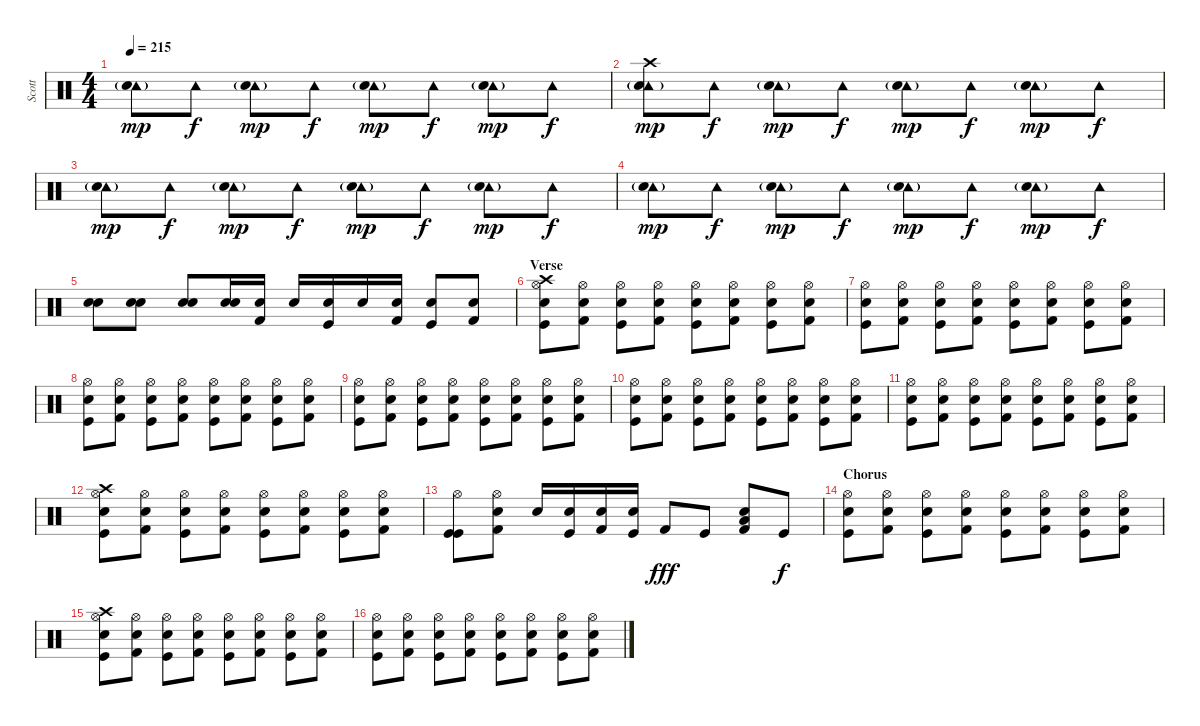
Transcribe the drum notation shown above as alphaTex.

\track ("Scott" "Scott") {instrument percussion}
\staff {score}
\articulation defaults
\ts (4 4)
\tempo 215
\clef neutral
\ks c
("Tambourine (hit)" "Electric Snare (hit)"{g}).8{dy mp} "Tambourine (hit)".8{dy f} ("Tambourine (hit)" "Electric Snare (hit)"{g}).8{dy mp} "Tambourine (hit)".8{dy f} ("Tambourine (hit)" "Electric Snare (hit)"{g}).8{dy mp} "Tambourine (hit)".8{dy f} ("Tambourine (hit)" "Electric Snare (hit)"{g}).8{dy mp} "Tambourine (hit)".8{dy f} |
("Crash high (hit)" "Tambourine (hit)" "Electric Snare (hit)"{g}).8{dy mp} "Tambourine (hit)".8{dy f} ("Tambourine (hit)" "Electric Snare (hit)"{g}).8{dy mp} "Tambourine (hit)".8{dy f} ("Tambourine (hit)" "Electric Snare (hit)"{g}).8{dy mp} "Tambourine (hit)".8{dy f} ("Tambourine (hit)" "Electric Snare (hit)"{g}).8{dy mp} "Tambourine (hit)".8{dy f} |
("Tambourine (hit)" "Electric Snare (hit)"{g}).8{dy mp} "Tambourine (hit)".8{dy f} ("Tambourine (hit)" "Electric Snare (hit)"{g}).8{dy mp} "Tambourine (hit)".8{dy f} ("Tambourine (hit)" "Electric Snare (hit)"{g}).8{dy mp} "Tambourine (hit)".8{dy f} ("Tambourine (hit)" "Electric Snare (hit)"{g}).8{dy mp} "Tambourine (hit)".8{dy f} |
("Tambourine (hit)" "Electric Snare (hit)"{g}).8{dy mp} "Tambourine (hit)".8{dy f} ("Tambourine (hit)" "Electric Snare (hit)"{g}).8{dy mp} "Tambourine (hit)".8{dy f} ("Tambourine (hit)" "Electric Snare (hit)"{g}).8{dy mp} "Tambourine (hit)".8{dy f} ("Tambourine (hit)" "Electric Snare (hit)"{g}).8{dy mp} "Tambourine (hit)".8{dy f} |
("Snare (hit) 2" "Electric Snare (hit)").8 ("Snare (hit) 2" "Electric Snare (hit)").8 ("Snare (hit) 2" "Electric Snare (hit)").8 ("Snare (hit) 2" "Electric Snare (hit)").16 ("Kick (hit) 2" "Electric Snare (hit)").16 "Snare (hit) 2".16 ("Kick (hit)" "Electric Snare (hit)").16 "Snare (hit) 2".16 ("Kick (hit) 2" "Electric Snare (hit)").16 ("Snare (hit) 2" "Kick (hit)").8 ("Snare (hit) 2" "Kick (hit) 2").8 |
\section ("" "Verse")
("Crash high (hit)" "Hi-Hat (open)" "Snare (hit) 2" "Kick (hit)").8 ("Hi-Hat (open)" "Electric Snare (hit)" "Kick (hit) 2").8 ("Hi-Hat (open)" "Snare (hit) 2" "Kick (hit)").8 ("Hi-Hat (open)" "Electric Snare (hit)" "Kick (hit) 2").8 ("Hi-Hat (open)" "Snare (hit) 2" "Kick (hit)").8 ("Hi-Hat (open)" "Electric Snare (hit)" "Kick (hit) 2").8 ("Hi-Hat (open)" "Snare (hit) 2" "Kick (hit)").8 ("Hi-Hat (open)" "Electric Snare (hit)" "Kick (hit) 2").8 |
("Hi-Hat (open)" "Snare (hit) 2" "Kick (hit)").8 ("Hi-Hat (open)" "Electric Snare (hit)" "Kick (hit) 2").8 ("Hi-Hat (open)" "Snare (hit) 2" "Kick (hit)").8 ("Hi-Hat (open)" "Electric Snare (hit)" "Kick (hit) 2").8 ("Hi-Hat (open)" "Snare (hit) 2" "Kick (hit)").8 ("Hi-Hat (open)" "Electric Snare (hit)" "Kick (hit) 2").8 ("Hi-Hat (open)" "Snare (hit) 2" "Kick (hit)").8 ("Hi-Hat (open)" "Electric Snare (hit)" "Kick (hit) 2").8 |
("Hi-Hat (open)" "Snare (hit) 2" "Kick (hit)").8 ("Hi-Hat (open)" "Electric Snare (hit)" "Kick (hit) 2").8 ("Hi-Hat (open)" "Snare (hit) 2" "Kick (hit)").8 ("Hi-Hat (open)" "Electric Snare (hit)" "Kick (hit) 2").8 ("Hi-Hat (open)" "Snare (hit) 2" "Kick (hit)").8 ("Hi-Hat (open)" "Electric Snare (hit)" "Kick (hit) 2").8 ("Hi-Hat (open)" "Snare (hit) 2" "Kick (hit)").8 ("Hi-Hat (open)" "Electric Snare (hit)" "Kick (hit) 2").8 |
("Hi-Hat (open)" "Snare (hit) 2" "Kick (hit)").8 ("Hi-Hat (open)" "Electric Snare (hit)" "Kick (hit) 2").8 ("Hi-Hat (open)" "Snare (hit) 2" "Kick (hit)").8 ("Hi-Hat (open)" "Electric Snare (hit)" "Kick (hit) 2").8 ("Hi-Hat (open)" "Snare (hit) 2" "Kick (hit)").8 ("Hi-Hat (open)" "Electric Snare (hit)" "Kick (hit) 2").8 ("Hi-Hat (open)" "Snare (hit) 2" "Kick (hit)").8 ("Hi-Hat (open)" "Electric Snare (hit)" "Kick (hit) 2").8 |
("Hi-Hat (open)" "Snare (hit) 2" "Kick (hit)").8 ("Hi-Hat (open)" "Electric Snare (hit)" "Kick (hit) 2").8 ("Hi-Hat (open)" "Snare (hit) 2" "Kick (hit)").8 ("Hi-Hat (open)" "Electric Snare (hit)" "Kick (hit) 2").8 ("Hi-Hat (open)" "Snare (hit) 2" "Kick (hit)").8 ("Hi-Hat (open)" "Electric Snare (hit)" "Kick (hit) 2").8 ("Hi-Hat (open)" "Snare (hit) 2" "Kick (hit)").8 ("Hi-Hat (open)" "Electric Snare (hit)" "Kick (hit) 2").8 |
("Hi-Hat (open)" "Snare (hit) 2" "Kick (hit)").8 ("Hi-Hat (open)" "Electric Snare (hit)" "Kick (hit) 2").8 ("Hi-Hat (open)" "Snare (hit) 2" "Kick (hit)").8 ("Hi-Hat (open)" "Electric Snare (hit)" "Kick (hit) 2").8 ("Hi-Hat (open)" "Snare (hit) 2" "Kick (hit)").8 ("Hi-Hat (open)" "Electric Snare (hit)" "Kick (hit) 2").8 ("Hi-Hat (open)" "Snare (hit) 2" "Kick (hit)").8 ("Hi-Hat (open)" "Electric Snare (hit)" "Kick (hit) 2").8 |
("Crash high (hit)" "Hi-Hat (open)" "Snare (hit) 2" "Kick (hit)").8 ("Hi-Hat (open)" "Electric Snare (hit)" "Kick (hit) 2").8 ("Hi-Hat (open)" "Snare (hit) 2" "Kick (hit)").8 ("Hi-Hat (open)" "Electric Snare (hit)" "Kick (hit) 2").8 ("Hi-Hat (open)" "Snare (hit) 2" "Kick (hit)").8 ("Hi-Hat (open)" "Electric Snare (hit)" "Kick (hit) 2").8 ("Hi-Hat (open)" "Snare (hit) 2" "Kick (hit)").8 ("Hi-Hat (open)" "Electric Snare (hit)" "Kick (hit) 2").8 |
("Hi-Hat (open)" "Kick (hit)" "Kick (hit)").8 ("Hi-Hat (open)" "Electric Snare (hit)" "Kick (hit) 2").8 "Snare (hit) 2".16 ("Snare (hit) 2" "Kick (hit)").16 ("Snare (hit) 2" "Kick (hit) 2").16 ("Snare (hit) 2" "Kick (hit)").16 "Kick (hit) 2".8{dy fff} "Kick (hit)".8 ("Snare (hit) 2" "Low Floor Tom (hit)" "Kick (hit) 2").8 "Kick (hit)".8{dy f} |
\section ("" "Chorus")
("Hi-Hat (open)" "Snare (hit) 2" "Kick (hit)").8 ("Hi-Hat (open)" "Electric Snare (hit)" "Kick (hit) 2").8 ("Hi-Hat (open)" "Snare (hit) 2" "Kick (hit)").8 ("Hi-Hat (open)" "Electric Snare (hit)" "Kick (hit) 2").8 ("Hi-Hat (open)" "Snare (hit) 2" "Kick (hit)").8 ("Hi-Hat (open)" "Electric Snare (hit)" "Kick (hit) 2").8 ("Hi-Hat (open)" "Snare (hit) 2" "Kick (hit)").8 ("Hi-Hat (open)" "Electric Snare (hit)" "Kick (hit) 2").8 |
("Crash high (hit)" "Hi-Hat (open)" "Snare (hit) 2" "Kick (hit)").8 ("Hi-Hat (open)" "Electric Snare (hit)" "Kick (hit) 2").8 ("Hi-Hat (open)" "Snare (hit) 2" "Kick (hit)").8 ("Hi-Hat (open)" "Electric Snare (hit)" "Kick (hit) 2").8 ("Hi-Hat (open)" "Snare (hit) 2" "Kick (hit)").8 ("Hi-Hat (open)" "Electric Snare (hit)" "Kick (hit) 2").8 ("Hi-Hat (open)" "Snare (hit) 2" "Kick (hit)").8 ("Hi-Hat (open)" "Electric Snare (hit)" "Kick (hit) 2").8 |
("Hi-Hat (open)" "Snare (hit) 2" "Kick (hit)").8 ("Hi-Hat (open)" "Electric Snare (hit)" "Kick (hit) 2").8 ("Hi-Hat (open)" "Snare (hit) 2" "Kick (hit)").8 ("Hi-Hat (open)" "Electric Snare (hit)" "Kick (hit) 2").8 ("Hi-Hat (open)" "Snare (hit) 2" "Kick (hit)").8 ("Hi-Hat (open)" "Electric Snare (hit)" "Kick (hit) 2").8 ("Hi-Hat (open)" "Snare (hit) 2" "Kick (hit)").8 ("Hi-Hat (open)" "Electric Snare (hit)" "Kick (hit) 2").8
